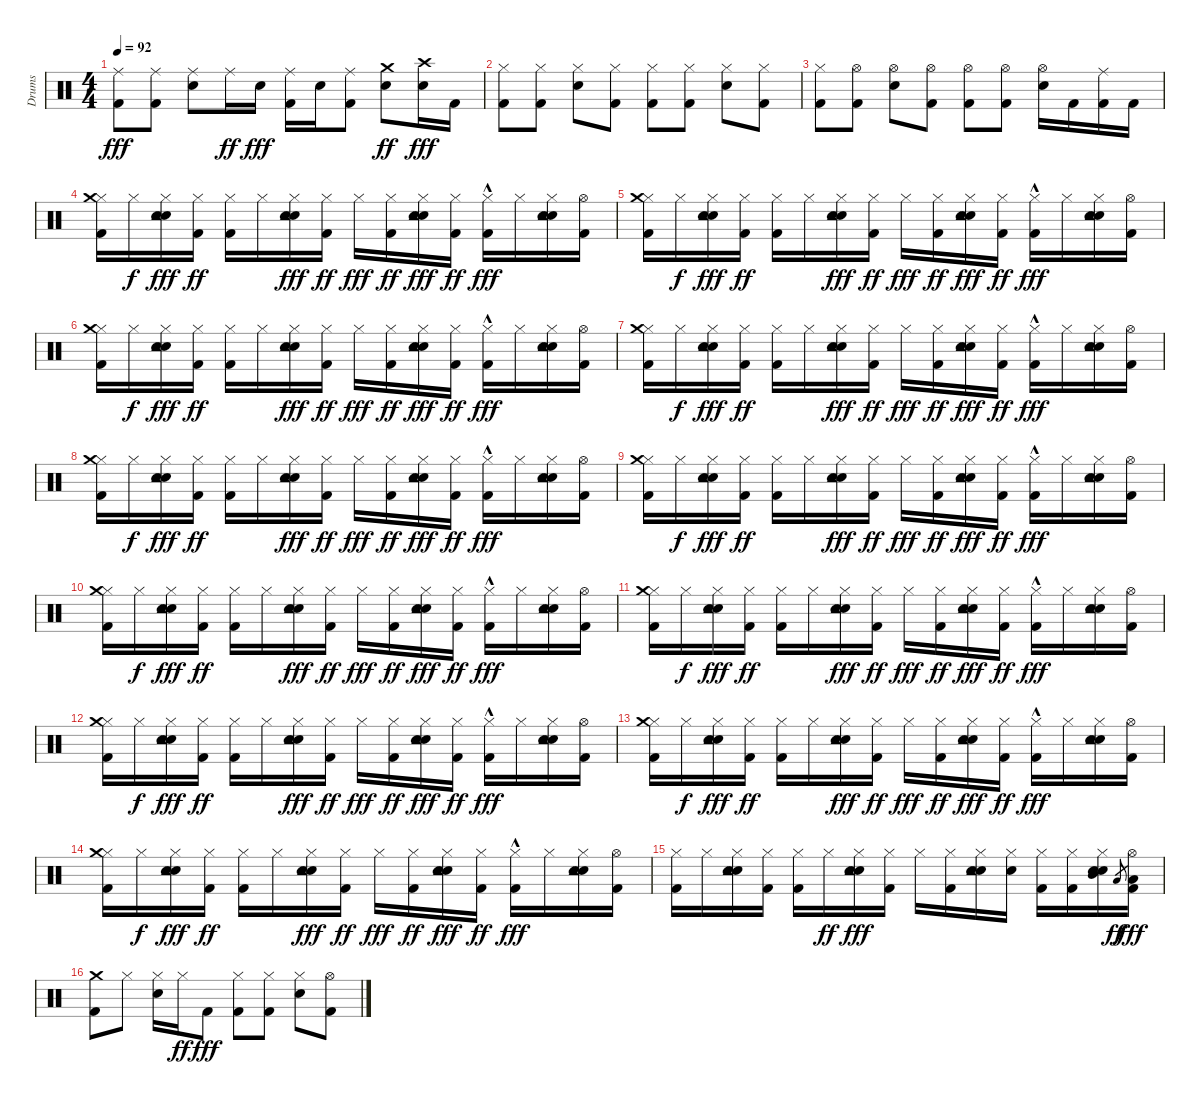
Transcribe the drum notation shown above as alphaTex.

\track ("Drums" "Drums") {instrument percussion}
\staff {score}
\articulation defaults
\ts (4 4)
\tempo 92
\clef neutral
\ks c
("Kick (hit) 2" "Ride (middle)").8{dy fff} ("Kick (hit) 2" "Ride (middle)").8 ("Snare (hit) 2" "Ride (middle)").8 "Ride (middle)".16{dy ff} "Snare (hit) 2".16{dy fff} ("Kick (hit) 2" "Ride (middle)").16 "Snare (hit) 2".16 ("Kick (hit) 2" "Ride (middle)").8 ("Snare (hit) 2" "Crash medium (hit)").8{dy ff} ("Snare (hit) 2" "Crash high (hit)").16{dy fff} "Kick (hit) 2".16 |
("Kick (hit) 2" "Hi-Hat (closed)").8 ("Kick (hit) 2" "Hi-Hat (closed)").8 ("Snare (hit) 2" "Hi-Hat (closed)").8 ("Kick (hit) 2" "Hi-Hat (closed)").8 ("Kick (hit) 2" "Hi-Hat (closed)").8 ("Kick (hit) 2" "Hi-Hat (closed)").8 ("Snare (hit) 2" "Hi-Hat (closed)").8 ("Kick (hit) 2" "Hi-Hat (closed)").8 |
("Kick (hit) 2" "Hi-Hat (closed)").8 ("Kick (hit) 2" "Hi-Hat (open)").8 ("Snare (hit) 2" "Hi-Hat (open)").8 ("Kick (hit) 2" "Hi-Hat (open)").8 ("Kick (hit) 2" "Hi-Hat (open)").8 ("Kick (hit) 2" "Hi-Hat (open)").8 ("Snare (hit) 2" "Hi-Hat (open)").16 "Kick (hit) 2".16 ("Kick (hit) 2" "Ride (middle)").16 "Kick (hit) 2".16 |
("Kick (hit) 2" "Hi-Hat (closed)" "Crash medium (hit)").16 "Hi-Hat (closed)".16{dy f} ("Snare (hit) 2" "Hi-Hat (closed)" "Tambourine (hit)" "Hand Clap (hit)").16{dy fff} ("Kick (hit) 2" "Hi-Hat (closed)").16{dy ff} ("Kick (hit) 2" "Hi-Hat (closed)").16 "Hi-Hat (closed)".16 ("Snare (hit) 2" "Hi-Hat (closed)" "Tambourine (hit)" "Hand Clap (hit)").16{dy fff} ("Kick (hit) 2" "Hi-Hat (closed)").16{dy ff} "Hi-Hat (closed)".16{dy fff} ("Kick (hit) 2" "Hi-Hat (closed)").16{dy ff} ("Snare (hit) 2" "Hi-Hat (closed)" "Tambourine (hit)" "Hand Clap (hit)").16{dy fff} ("Kick (hit) 2" "Hi-Hat (closed)").16{dy ff} ("Kick (hit) 2"{hac} "Hi-Hat (closed)").16{dy fff} "Hi-Hat (closed)".16 ("Snare (hit) 2" "Hi-Hat (closed)" "Tambourine (hit)" "Hand Clap (hit)").16 ("Kick (hit) 2" "Hi-Hat (open)").16 |
("Kick (hit) 2" "Hi-Hat (closed)" "Crash medium (hit)").16 "Hi-Hat (closed)".16{dy f} ("Snare (hit) 2" "Hi-Hat (closed)" "Tambourine (hit)" "Hand Clap (hit)").16{dy fff} ("Kick (hit) 2" "Hi-Hat (closed)").16{dy ff} ("Kick (hit) 2" "Hi-Hat (closed)").16 "Hi-Hat (closed)".16 ("Snare (hit) 2" "Hi-Hat (closed)" "Tambourine (hit)" "Hand Clap (hit)").16{dy fff} ("Kick (hit) 2" "Hi-Hat (closed)").16{dy ff} "Hi-Hat (closed)".16{dy fff} ("Kick (hit) 2" "Hi-Hat (closed)").16{dy ff} ("Snare (hit) 2" "Hi-Hat (closed)" "Tambourine (hit)" "Hand Clap (hit)").16{dy fff} ("Kick (hit) 2" "Hi-Hat (closed)").16{dy ff} ("Kick (hit) 2"{hac} "Hi-Hat (closed)").16{dy fff} "Hi-Hat (closed)".16 ("Snare (hit) 2" "Hi-Hat (closed)" "Tambourine (hit)" "Hand Clap (hit)").16 ("Kick (hit) 2" "Hi-Hat (open)").16 |
("Kick (hit) 2" "Hi-Hat (closed)" "Crash medium (hit)").16 "Hi-Hat (closed)".16{dy f} ("Snare (hit) 2" "Hi-Hat (closed)" "Tambourine (hit)" "Hand Clap (hit)").16{dy fff} ("Kick (hit) 2" "Hi-Hat (closed)").16{dy ff} ("Kick (hit) 2" "Hi-Hat (closed)").16 "Hi-Hat (closed)".16 ("Snare (hit) 2" "Hi-Hat (closed)" "Tambourine (hit)" "Hand Clap (hit)").16{dy fff} ("Kick (hit) 2" "Hi-Hat (closed)").16{dy ff} "Hi-Hat (closed)".16{dy fff} ("Kick (hit) 2" "Hi-Hat (closed)").16{dy ff} ("Snare (hit) 2" "Hi-Hat (closed)" "Tambourine (hit)" "Hand Clap (hit)").16{dy fff} ("Kick (hit) 2" "Hi-Hat (closed)").16{dy ff} ("Kick (hit) 2"{hac} "Hi-Hat (closed)").16{dy fff} "Hi-Hat (closed)".16 ("Snare (hit) 2" "Hi-Hat (closed)" "Tambourine (hit)" "Hand Clap (hit)").16 ("Kick (hit) 2" "Hi-Hat (open)").16 |
("Kick (hit) 2" "Hi-Hat (closed)" "Crash medium (hit)").16 "Hi-Hat (closed)".16{dy f} ("Snare (hit) 2" "Hi-Hat (closed)" "Tambourine (hit)" "Hand Clap (hit)").16{dy fff} ("Kick (hit) 2" "Hi-Hat (closed)").16{dy ff} ("Kick (hit) 2" "Hi-Hat (closed)").16 "Hi-Hat (closed)".16 ("Snare (hit) 2" "Hi-Hat (closed)" "Tambourine (hit)" "Hand Clap (hit)").16{dy fff} ("Kick (hit) 2" "Hi-Hat (closed)").16{dy ff} "Hi-Hat (closed)".16{dy fff} ("Kick (hit) 2" "Hi-Hat (closed)").16{dy ff} ("Snare (hit) 2" "Hi-Hat (closed)" "Tambourine (hit)" "Hand Clap (hit)").16{dy fff} ("Kick (hit) 2" "Hi-Hat (closed)").16{dy ff} ("Kick (hit) 2"{hac} "Hi-Hat (closed)").16{dy fff} "Hi-Hat (closed)".16 ("Snare (hit) 2" "Hi-Hat (closed)" "Tambourine (hit)" "Hand Clap (hit)").16 ("Kick (hit) 2" "Hi-Hat (open)").16 |
("Kick (hit) 2" "Hi-Hat (closed)" "Crash medium (hit)").16 "Hi-Hat (closed)".16{dy f} ("Snare (hit) 2" "Hi-Hat (closed)" "Tambourine (hit)" "Hand Clap (hit)").16{dy fff} ("Kick (hit) 2" "Hi-Hat (closed)").16{dy ff} ("Kick (hit) 2" "Hi-Hat (closed)").16 "Hi-Hat (closed)".16 ("Snare (hit) 2" "Hi-Hat (closed)" "Tambourine (hit)" "Hand Clap (hit)").16{dy fff} ("Kick (hit) 2" "Hi-Hat (closed)").16{dy ff} "Hi-Hat (closed)".16{dy fff} ("Kick (hit) 2" "Hi-Hat (closed)").16{dy ff} ("Snare (hit) 2" "Hi-Hat (closed)" "Tambourine (hit)" "Hand Clap (hit)").16{dy fff} ("Kick (hit) 2" "Hi-Hat (closed)").16{dy ff} ("Kick (hit) 2"{hac} "Hi-Hat (closed)").16{dy fff} "Hi-Hat (closed)".16 ("Snare (hit) 2" "Hi-Hat (closed)" "Tambourine (hit)" "Hand Clap (hit)").16 ("Kick (hit) 2" "Hi-Hat (open)").16 |
("Kick (hit) 2" "Hi-Hat (closed)" "Crash medium (hit)").16 "Hi-Hat (closed)".16{dy f} ("Snare (hit) 2" "Hi-Hat (closed)" "Tambourine (hit)" "Hand Clap (hit)").16{dy fff} ("Kick (hit) 2" "Hi-Hat (closed)").16{dy ff} ("Kick (hit) 2" "Hi-Hat (closed)").16 "Hi-Hat (closed)".16 ("Snare (hit) 2" "Hi-Hat (closed)" "Tambourine (hit)" "Hand Clap (hit)").16{dy fff} ("Kick (hit) 2" "Hi-Hat (closed)").16{dy ff} "Hi-Hat (closed)".16{dy fff} ("Kick (hit) 2" "Hi-Hat (closed)").16{dy ff} ("Snare (hit) 2" "Hi-Hat (closed)" "Tambourine (hit)" "Hand Clap (hit)").16{dy fff} ("Kick (hit) 2" "Hi-Hat (closed)").16{dy ff} ("Kick (hit) 2"{hac} "Hi-Hat (closed)").16{dy fff} "Hi-Hat (closed)".16 ("Snare (hit) 2" "Hi-Hat (closed)" "Tambourine (hit)" "Hand Clap (hit)").16 ("Kick (hit) 2" "Hi-Hat (open)").16 |
("Kick (hit) 2" "Hi-Hat (closed)" "Crash medium (hit)").16 "Hi-Hat (closed)".16{dy f} ("Snare (hit) 2" "Hi-Hat (closed)" "Tambourine (hit)" "Hand Clap (hit)").16{dy fff} ("Kick (hit) 2" "Hi-Hat (closed)").16{dy ff} ("Kick (hit) 2" "Hi-Hat (closed)").16 "Hi-Hat (closed)".16 ("Snare (hit) 2" "Hi-Hat (closed)" "Tambourine (hit)" "Hand Clap (hit)").16{dy fff} ("Kick (hit) 2" "Hi-Hat (closed)").16{dy ff} "Hi-Hat (closed)".16{dy fff} ("Kick (hit) 2" "Hi-Hat (closed)").16{dy ff} ("Snare (hit) 2" "Hi-Hat (closed)" "Tambourine (hit)" "Hand Clap (hit)").16{dy fff} ("Kick (hit) 2" "Hi-Hat (closed)").16{dy ff} ("Kick (hit) 2"{hac} "Hi-Hat (closed)").16{dy fff} "Hi-Hat (closed)".16 ("Snare (hit) 2" "Hi-Hat (closed)" "Tambourine (hit)" "Hand Clap (hit)").16 ("Kick (hit) 2" "Hi-Hat (open)").16 |
("Kick (hit) 2" "Hi-Hat (closed)" "Crash medium (hit)").16 "Hi-Hat (closed)".16{dy f} ("Snare (hit) 2" "Hi-Hat (closed)" "Tambourine (hit)" "Hand Clap (hit)").16{dy fff} ("Kick (hit) 2" "Hi-Hat (closed)").16{dy ff} ("Kick (hit) 2" "Hi-Hat (closed)").16 "Hi-Hat (closed)".16 ("Snare (hit) 2" "Hi-Hat (closed)" "Tambourine (hit)" "Hand Clap (hit)").16{dy fff} ("Kick (hit) 2" "Hi-Hat (closed)").16{dy ff} "Hi-Hat (closed)".16{dy fff} ("Kick (hit) 2" "Hi-Hat (closed)").16{dy ff} ("Snare (hit) 2" "Hi-Hat (closed)" "Tambourine (hit)" "Hand Clap (hit)").16{dy fff} ("Kick (hit) 2" "Hi-Hat (closed)").16{dy ff} ("Kick (hit) 2"{hac} "Hi-Hat (closed)").16{dy fff} "Hi-Hat (closed)".16 ("Snare (hit) 2" "Hi-Hat (closed)" "Tambourine (hit)" "Hand Clap (hit)").16 ("Kick (hit) 2" "Hi-Hat (open)").16 |
("Kick (hit) 2" "Hi-Hat (closed)" "Crash medium (hit)").16 "Hi-Hat (closed)".16{dy f} ("Snare (hit) 2" "Hi-Hat (closed)" "Tambourine (hit)" "Hand Clap (hit)").16{dy fff} ("Kick (hit) 2" "Hi-Hat (closed)").16{dy ff} ("Kick (hit) 2" "Hi-Hat (closed)").16 "Hi-Hat (closed)".16 ("Snare (hit) 2" "Hi-Hat (closed)" "Tambourine (hit)" "Hand Clap (hit)").16{dy fff} ("Kick (hit) 2" "Hi-Hat (closed)").16{dy ff} "Hi-Hat (closed)".16{dy fff} ("Kick (hit) 2" "Hi-Hat (closed)").16{dy ff} ("Snare (hit) 2" "Hi-Hat (closed)" "Tambourine (hit)" "Hand Clap (hit)").16{dy fff} ("Kick (hit) 2" "Hi-Hat (closed)").16{dy ff} ("Kick (hit) 2"{hac} "Hi-Hat (closed)").16{dy fff} "Hi-Hat (closed)".16 ("Snare (hit) 2" "Hi-Hat (closed)" "Tambourine (hit)" "Hand Clap (hit)").16 ("Kick (hit) 2" "Hi-Hat (open)").16 |
("Kick (hit) 2" "Hi-Hat (closed)" "Crash medium (hit)").16 "Hi-Hat (closed)".16{dy f} ("Snare (hit) 2" "Hi-Hat (closed)" "Tambourine (hit)" "Hand Clap (hit)").16{dy fff} ("Kick (hit) 2" "Hi-Hat (closed)").16{dy ff} ("Kick (hit) 2" "Hi-Hat (closed)").16 "Hi-Hat (closed)".16 ("Snare (hit) 2" "Hi-Hat (closed)" "Tambourine (hit)" "Hand Clap (hit)").16{dy fff} ("Kick (hit) 2" "Hi-Hat (closed)").16{dy ff} "Hi-Hat (closed)".16{dy fff} ("Kick (hit) 2" "Hi-Hat (closed)").16{dy ff} ("Snare (hit) 2" "Hi-Hat (closed)" "Tambourine (hit)" "Hand Clap (hit)").16{dy fff} ("Kick (hit) 2" "Hi-Hat (closed)").16{dy ff} ("Kick (hit) 2"{hac} "Hi-Hat (closed)").16{dy fff} "Hi-Hat (closed)".16 ("Snare (hit) 2" "Hi-Hat (closed)" "Tambourine (hit)" "Hand Clap (hit)").16 ("Kick (hit) 2" "Hi-Hat (open)").16 |
("Kick (hit) 2" "Hi-Hat (closed)" "Crash medium (hit)").16 "Hi-Hat (closed)".16{dy f} ("Snare (hit) 2" "Hi-Hat (closed)" "Tambourine (hit)" "Hand Clap (hit)").16{dy fff} ("Kick (hit) 2" "Hi-Hat (closed)").16{dy ff} ("Kick (hit) 2" "Hi-Hat (closed)").16 "Hi-Hat (closed)".16 ("Snare (hit) 2" "Hi-Hat (closed)" "Tambourine (hit)" "Hand Clap (hit)").16{dy fff} ("Kick (hit) 2" "Hi-Hat (closed)").16{dy ff} "Hi-Hat (closed)".16{dy fff} ("Kick (hit) 2" "Hi-Hat (closed)").16{dy ff} ("Snare (hit) 2" "Hi-Hat (closed)" "Tambourine (hit)" "Hand Clap (hit)").16{dy fff} ("Kick (hit) 2" "Hi-Hat (closed)").16{dy ff} ("Kick (hit) 2"{hac} "Hi-Hat (closed)").16{dy fff} "Hi-Hat (closed)".16 ("Snare (hit) 2" "Hi-Hat (closed)" "Tambourine (hit)" "Hand Clap (hit)").16 ("Kick (hit) 2" "Hi-Hat (open)").16 |
("Kick (hit) 2" "Hi-Hat (closed)").16 "Hi-Hat (closed)".16 ("Snare (hit) 2" "Hi-Hat (closed)" "Tambourine (hit)" "Hand Clap (hit)").16 ("Kick (hit) 2" "Hi-Hat (closed)").16 ("Kick (hit) 2" "Hi-Hat (closed)").16 "Hi-Hat (closed)".16{dy ff} ("Snare (hit) 2" "Hi-Hat (closed)" "Tambourine (hit)" "Hand Clap (hit)").16{dy fff} ("Kick (hit) 2" "Hi-Hat (closed)").16 "Hi-Hat (closed)".16 ("Kick (hit) 2" "Hi-Hat (closed)").16 ("Snare (hit) 2" "Hi-Hat (closed)" "Tambourine (hit)" "Hand Clap (hit)").16 ("Snare (hit) 2" "Hi-Hat (closed)").16 ("Kick (hit) 2" "Hi-Hat (closed)").16 ("Kick (hit) 2" "Hi-Hat (closed)").16 ("Snare (hit) 2" "Mid Tom (hit)" "Hi-Hat (closed)" "Tambourine (hit)" "Hand Clap (hit)").16 "Low Tom (hit)".8{gr dy ff} ("Kick (hit) 2" "Hi-Hat (open)" "Low Floor Tom (hit)").16{dy fff} |
("Kick (hit) 2" "Crash medium (hit)").8 "Hi-Hat (closed)".8 ("Snare (hit) 2" "Hi-Hat (closed)").16 "Hi-Hat (closed)".16{dy ff} "Kick (hit) 2".8{dy fff} ("Kick (hit) 2" "Hi-Hat (closed)").8 ("Kick (hit) 2" "Hi-Hat (closed)").8 ("Snare (hit) 2" "Hi-Hat (closed)").8 ("Kick (hit) 2" "Hi-Hat (open)").8
